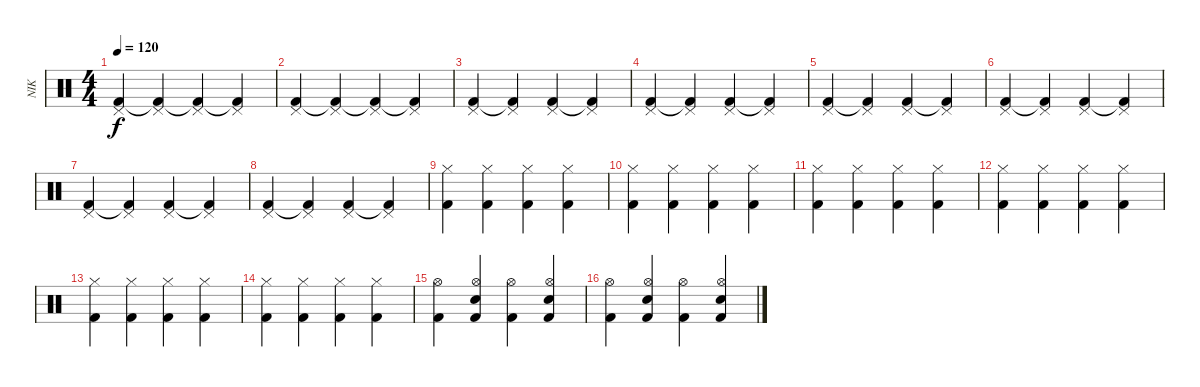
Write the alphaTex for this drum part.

\track ("NIK" "NIK") {instrument percussion}
\staff {score}
\articulation defaults
\ts (4 4)
\tempo 120
\clef neutral
\ks c
("Pedal Hi-Hat (hit)" "Kick (hit) 2").4{dy f} ("Pedal Hi-Hat (hit)" "Kick (hit) 2"{t}).4 ("Pedal Hi-Hat (hit)" "Kick (hit) 2"{t}).4 ("Pedal Hi-Hat (hit)" "Kick (hit) 2"{t}).4 |
("Pedal Hi-Hat (hit)" "Kick (hit) 2").4 ("Pedal Hi-Hat (hit)" "Kick (hit) 2"{t}).4 ("Pedal Hi-Hat (hit)" "Kick (hit) 2"{t}).4 ("Pedal Hi-Hat (hit)" "Kick (hit) 2"{t}).4 |
("Pedal Hi-Hat (hit)" "Kick (hit) 2").4 ("Pedal Hi-Hat (hit)" "Kick (hit) 2"{t}).4 ("Pedal Hi-Hat (hit)" "Kick (hit) 2").4 ("Pedal Hi-Hat (hit)" "Kick (hit) 2"{t}).4 |
("Pedal Hi-Hat (hit)" "Kick (hit) 2").4 ("Pedal Hi-Hat (hit)" "Kick (hit) 2"{t}).4 ("Pedal Hi-Hat (hit)" "Kick (hit) 2").4 ("Pedal Hi-Hat (hit)" "Kick (hit) 2"{t}).4 |
("Pedal Hi-Hat (hit)" "Kick (hit) 2").4 ("Pedal Hi-Hat (hit)" "Kick (hit) 2"{t}).4 ("Pedal Hi-Hat (hit)" "Kick (hit) 2").4 ("Pedal Hi-Hat (hit)" "Kick (hit) 2"{t}).4 |
("Pedal Hi-Hat (hit)" "Kick (hit) 2").4 ("Pedal Hi-Hat (hit)" "Kick (hit) 2"{t}).4 ("Pedal Hi-Hat (hit)" "Kick (hit) 2").4 ("Pedal Hi-Hat (hit)" "Kick (hit) 2"{t}).4 |
("Pedal Hi-Hat (hit)" "Kick (hit) 2").4 ("Pedal Hi-Hat (hit)" "Kick (hit) 2"{t}).4 ("Pedal Hi-Hat (hit)" "Kick (hit) 2").4 ("Pedal Hi-Hat (hit)" "Kick (hit) 2"{t}).4 |
("Pedal Hi-Hat (hit)" "Kick (hit) 2").4 ("Pedal Hi-Hat (hit)" "Kick (hit) 2"{t}).4 ("Pedal Hi-Hat (hit)" "Kick (hit) 2").4 ("Pedal Hi-Hat (hit)" "Kick (hit) 2"{t}).4 |
("Hi-Hat (closed)" "Kick (hit) 2").4 ("Hi-Hat (closed)" "Kick (hit) 2").4 ("Hi-Hat (closed)" "Kick (hit) 2").4 ("Hi-Hat (closed)" "Kick (hit) 2").4 |
("Hi-Hat (closed)" "Kick (hit) 2").4 ("Hi-Hat (closed)" "Kick (hit) 2").4 ("Hi-Hat (closed)" "Kick (hit) 2").4 ("Hi-Hat (closed)" "Kick (hit) 2").4 |
("Hi-Hat (closed)" "Kick (hit) 2").4 ("Hi-Hat (closed)" "Kick (hit) 2").4 ("Hi-Hat (closed)" "Kick (hit) 2").4 ("Hi-Hat (closed)" "Kick (hit) 2").4 |
("Hi-Hat (closed)" "Kick (hit) 2").4 ("Hi-Hat (closed)" "Kick (hit) 2").4 ("Hi-Hat (closed)" "Kick (hit) 2").4 ("Hi-Hat (closed)" "Kick (hit) 2").4 |
("Hi-Hat (closed)" "Kick (hit) 2").4 ("Hi-Hat (closed)" "Kick (hit) 2").4 ("Hi-Hat (closed)" "Kick (hit) 2").4 ("Hi-Hat (closed)" "Kick (hit) 2").4 |
("Hi-Hat (closed)" "Kick (hit) 2").4 ("Hi-Hat (closed)" "Kick (hit) 2").4 ("Hi-Hat (closed)" "Kick (hit) 2").4 ("Hi-Hat (closed)" "Kick (hit) 2").4 |
("Kick (hit) 2" "Hi-Hat (open)").4 ("Kick (hit) 2" "Hi-Hat (open)" "Snare (hit) 2").4 ("Kick (hit) 2" "Hi-Hat (open)").4 ("Kick (hit) 2" "Hi-Hat (open)" "Snare (hit) 2").4 |
("Kick (hit) 2" "Hi-Hat (open)").4 ("Kick (hit) 2" "Hi-Hat (open)" "Snare (hit) 2").4 ("Kick (hit) 2" "Hi-Hat (open)").4 ("Kick (hit) 2" "Hi-Hat (open)" "Snare (hit) 2").4
